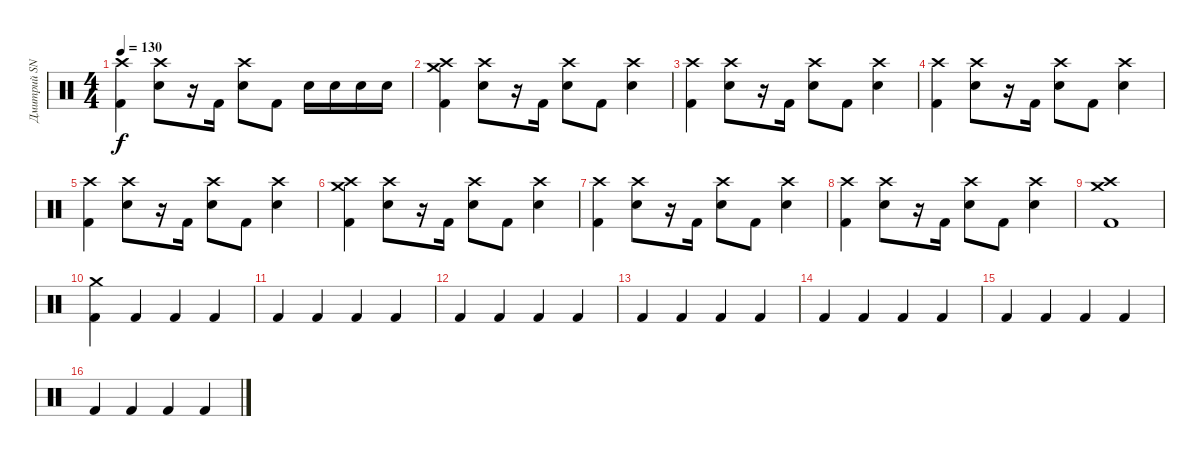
\track ("Дмитрий SNAKE Хакимов" "Дмитрий SN") {instrument percussion}
\staff {score}
\articulation defaults
\ts (4 4)
\tempo 130
\clef neutral
\ks c
("Crash high (hit)" "Kick (hit) 2").4{dy f} ("Crash high (hit)" "Snare (hit) 2").8 r.16 "Kick (hit) 2".16 ("Crash high (hit)" "Snare (hit) 2").8 "Kick (hit) 2".8 "Snare (hit) 2".16 "Snare (hit) 2".16 "Snare (hit) 2".16 "Snare (hit) 2".16 |
("Crash high (hit)" "Crash medium (hit)" "Kick (hit) 2").4 ("Crash high (hit)" "Snare (hit) 2").8 r.16 "Kick (hit) 2".16 ("Crash high (hit)" "Snare (hit) 2").8 "Kick (hit) 2".8 ("Crash high (hit)" "Snare (hit) 2").4 |
("Crash high (hit)" "Kick (hit) 2").4 ("Crash high (hit)" "Snare (hit) 2").8 r.16 "Kick (hit) 2".16 ("Crash high (hit)" "Snare (hit) 2").8 "Kick (hit) 2".8 ("Crash high (hit)" "Snare (hit) 2").4 |
("Crash high (hit)" "Kick (hit) 2").4 ("Crash high (hit)" "Snare (hit) 2").8 r.16 "Kick (hit) 2".16 ("Crash high (hit)" "Snare (hit) 2").8 "Kick (hit) 2".8 ("Crash high (hit)" "Snare (hit) 2").4 |
("Crash high (hit)" "Kick (hit) 2").4 ("Crash high (hit)" "Snare (hit) 2").8 r.16 "Kick (hit) 2".16 ("Crash high (hit)" "Snare (hit) 2").8 "Kick (hit) 2".8 ("Crash high (hit)" "Snare (hit) 2").4 |
("Crash high (hit)" "Crash medium (hit)" "Kick (hit) 2").4 ("Crash high (hit)" "Snare (hit) 2").8 r.16 "Kick (hit) 2".16 ("Crash high (hit)" "Snare (hit) 2").8 "Kick (hit) 2".8 ("Crash high (hit)" "Snare (hit) 2").4 |
("Crash high (hit)" "Kick (hit) 2").4 ("Crash high (hit)" "Snare (hit) 2").8 r.16 "Kick (hit) 2".16 ("Crash high (hit)" "Snare (hit) 2").8 "Kick (hit) 2".8 ("Crash high (hit)" "Snare (hit) 2").4 |
("Crash high (hit)" "Kick (hit) 2").4 ("Crash high (hit)" "Snare (hit) 2").8 r.16 "Kick (hit) 2".16 ("Crash high (hit)" "Snare (hit) 2").8 "Kick (hit) 2".8 ("Crash high (hit)" "Snare (hit) 2").4 |
("Crash high (hit)" "Crash medium (hit)" "Kick (hit) 2").1 |
("Crash medium (hit)" "Kick (hit) 2").4 "Kick (hit) 2".4 "Kick (hit) 2".4 "Kick (hit) 2".4 |
"Kick (hit) 2".4 "Kick (hit) 2".4 "Kick (hit) 2".4 "Kick (hit) 2".4 |
"Kick (hit) 2".4 "Kick (hit) 2".4 "Kick (hit) 2".4 "Kick (hit) 2".4 |
"Kick (hit) 2".4 "Kick (hit) 2".4 "Kick (hit) 2".4 "Kick (hit) 2".4 |
"Kick (hit) 2".4 "Kick (hit) 2".4 "Kick (hit) 2".4 "Kick (hit) 2".4 |
"Kick (hit) 2".4 "Kick (hit) 2".4 "Kick (hit) 2".4 "Kick (hit) 2".4 |
"Kick (hit) 2".4 "Kick (hit) 2".4 "Kick (hit) 2".4 "Kick (hit) 2".4
